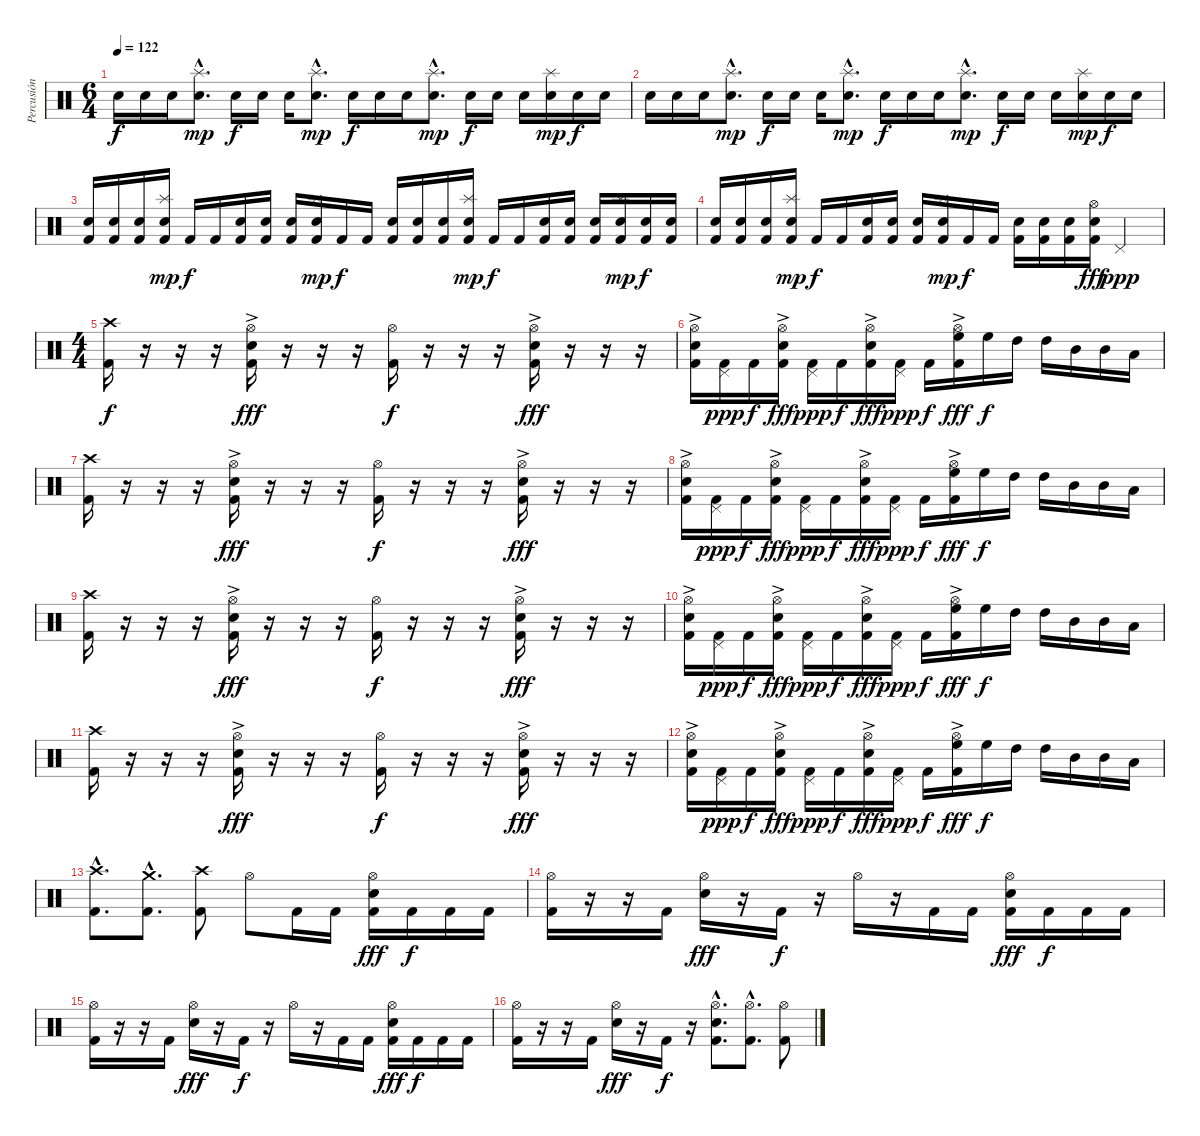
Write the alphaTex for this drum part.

\track ("Percusión" "Percusión") {instrument percussion}
\staff {score}
\articulation defaults
\ts (6 4)
\tempo 122
\clef neutral
\ks c "Electric Snare (hit)".16{dy f} "Electric Snare (hit)".16 "Electric Snare (hit)".16
("Splash (hit)"{hac} "Electric Snare (hit)"{hac}).8{d dy mp} "Electric Snare (hit)".16{dy f} "Electric Snare (hit)".16 "Electric Snare (hit)".16 ("Splash (hit)"{hac} "Electric Snare (hit)"{hac}).8{d dy mp} "Electric Snare (hit)".16{dy f} "Electric Snare (hit)".16 "Electric Snare (hit)".16 ("Splash (hit)"{hac} "Electric Snare (hit)"{hac}).8{d dy mp} "Electric Snare (hit)".16{dy f} "Electric Snare (hit)".16 "Electric Snare (hit)".16 ("Splash (hit)" "Electric Snare (hit)").16{dy mp} "Electric Snare (hit)".16{dy f} "Electric Snare (hit)".16 |
"Electric Snare (hit)".16 "Electric Snare (hit)".16 "Electric Snare (hit)".16 ("Splash (hit)"{hac} "Electric Snare (hit)"{hac}).8{d dy mp} "Electric Snare (hit)".16{dy f} "Electric Snare (hit)".16 "Electric Snare (hit)".16 ("Splash (hit)"{hac} "Electric Snare (hit)"{hac}).8{d dy mp} "Electric Snare (hit)".16{dy f} "Electric Snare (hit)".16 "Electric Snare (hit)".16 ("Splash (hit)"{hac} "Electric Snare (hit)"{hac}).8{d dy mp} "Electric Snare (hit)".16{dy f} "Electric Snare (hit)".16 "Electric Snare (hit)".16 ("Splash (hit)" "Electric Snare (hit)").16{dy mp} "Electric Snare (hit)".16{dy f} "Electric Snare (hit)".16 |
("Electric Snare (hit)" "Kick (hit) 2").16 ("Electric Snare (hit)" "Kick (hit) 2").16 ("Electric Snare (hit)" "Kick (hit) 2").16 ("Splash (hit)" "Electric Snare (hit)" "Kick (hit) 2").16{dy mp} "Kick (hit) 2".16{dy f} "Kick (hit) 2".16 ("Electric Snare (hit)" "Kick (hit) 2").16 ("Electric Snare (hit)" "Kick (hit) 2").16 ("Electric Snare (hit)" "Kick (hit) 2").16 ("Splash (hit)" "Electric Snare (hit)" "Kick (hit) 2").16{dy mp} "Kick (hit) 2".16{dy f} "Kick (hit) 2".16 ("Electric Snare (hit)" "Kick (hit) 2").16 ("Electric Snare (hit)" "Kick (hit) 2").16 ("Electric Snare (hit)" "Kick (hit) 2").16 ("Splash (hit)" "Electric Snare (hit)" "Kick (hit) 2").16{dy mp} "Kick (hit) 2".16{dy f} "Kick (hit) 2".16 ("Electric Snare (hit)" "Kick (hit) 2").16 ("Electric Snare (hit)" "Kick (hit) 2").16 ("Electric Snare (hit)" "Kick (hit) 2").16 ("Splash (hit)" "Electric Snare (hit)" "Kick (hit) 2").16{dy mp} ("Electric Snare (hit)" "Kick (hit) 2").16{dy f} ("Electric Snare (hit)" "Kick (hit) 2").16 |
("Electric Snare (hit)" "Kick (hit) 2").16 ("Electric Snare (hit)" "Kick (hit) 2").16 ("Electric Snare (hit)" "Kick (hit) 2").16 ("Splash (hit)" "Electric Snare (hit)" "Kick (hit) 2").16{dy mp} "Kick (hit) 2".16{dy f} "Kick (hit) 2".16 ("Electric Snare (hit)" "Kick (hit) 2").16 ("Electric Snare (hit)" "Kick (hit) 2").16 ("Electric Snare (hit)" "Kick (hit) 2").16 ("Splash (hit)" "Electric Snare (hit)" "Kick (hit) 2").16{dy mp} "Kick (hit) 2".16{dy f} "Kick (hit) 2".16 ("Electric Snare (hit)" "Kick (hit) 2").16 ("Electric Snare (hit)" "Kick (hit) 2").16 ("Electric Snare (hit)" "Kick (hit) 2").16 ("Hi-Hat (open)" "Electric Snare (hit)" "Kick (hit) 2").16{dy fff} "Pedal Hi-Hat (hit)".2{dy ppp} |
\ts (4 4)
("Crash high (hit)" "Kick (hit) 2").16{dy f} r.16 r.16 r.16 ("Hi-Hat (open)" "Electric Snare (hit)"{ac} "Kick (hit) 2").16{dy fff} r.16 r.16 r.16 ("Hi-Hat (open)" "Kick (hit) 2").16{dy f} r.16 r.16 r.16 ("Hi-Hat (open)" "Electric Snare (hit)"{ac} "Kick (hit) 2").16{dy fff} r.16 r.16 r.16 |
("Hi-Hat (open)"{ac} "Electric Snare (hit)"{ac} "Kick (hit) 2").16 ("Pedal Hi-Hat (hit)" "Kick (hit) 2").16{dy ppp} "Kick (hit) 2".16{dy f} ("Hi-Hat (open)"{ac} "Electric Snare (hit)"{ac} "Kick (hit) 2").16{dy fff} ("Pedal Hi-Hat (hit)" "Kick (hit) 2").16{dy ppp} "Kick (hit) 2".16{dy f} ("Hi-Hat (open)"{ac} "Electric Snare (hit)"{ac} "Kick (hit) 2").16{dy fff} ("Pedal Hi-Hat (hit)" "Kick (hit) 2").16{dy ppp} "Kick (hit) 2".16{dy f} ("Hi-Hat (open)"{ac} "High Floor Tom (hit)" "Kick (hit) 2").16{dy fff} "High Floor Tom (hit)".16{dy f} "High Tom (hit)".16 "High Tom (hit)".16 "Mid Tom (hit)".16 "Mid Tom (hit)".16 "Low Tom (hit)".16 |
("Crash high (hit)" "Kick (hit) 2").16 r.16 r.16 r.16 ("Hi-Hat (open)" "Electric Snare (hit)"{ac} "Kick (hit) 2").16{dy fff} r.16 r.16 r.16 ("Hi-Hat (open)" "Kick (hit) 2").16{dy f} r.16 r.16 r.16 ("Hi-Hat (open)" "Electric Snare (hit)"{ac} "Kick (hit) 2").16{dy fff} r.16 r.16 r.16 |
("Hi-Hat (open)"{ac} "Electric Snare (hit)"{ac} "Kick (hit) 2").16 ("Pedal Hi-Hat (hit)" "Kick (hit) 2").16{dy ppp} "Kick (hit) 2".16{dy f} ("Hi-Hat (open)"{ac} "Electric Snare (hit)"{ac} "Kick (hit) 2").16{dy fff} ("Pedal Hi-Hat (hit)" "Kick (hit) 2").16{dy ppp} "Kick (hit) 2".16{dy f} ("Hi-Hat (open)"{ac} "Electric Snare (hit)"{ac} "Kick (hit) 2").16{dy fff} ("Pedal Hi-Hat (hit)" "Kick (hit) 2").16{dy ppp} "Kick (hit) 2".16{dy f} ("Hi-Hat (open)"{ac} "High Floor Tom (hit)" "Kick (hit) 2").16{dy fff} "High Floor Tom (hit)".16{dy f} "High Tom (hit)".16 "High Tom (hit)".16 "Mid Tom (hit)".16 "Mid Tom (hit)".16 "Low Tom (hit)".16 |
("Crash high (hit)" "Kick (hit) 2").16 r.16 r.16 r.16 ("Hi-Hat (open)" "Electric Snare (hit)"{ac} "Kick (hit) 2").16{dy fff} r.16 r.16 r.16 ("Hi-Hat (open)" "Kick (hit) 2").16{dy f} r.16 r.16 r.16 ("Hi-Hat (open)" "Electric Snare (hit)"{ac} "Kick (hit) 2").16{dy fff} r.16 r.16 r.16 |
("Hi-Hat (open)"{ac} "Electric Snare (hit)"{ac} "Kick (hit) 2").16 ("Pedal Hi-Hat (hit)" "Kick (hit) 2").16{dy ppp} "Kick (hit) 2".16{dy f} ("Hi-Hat (open)"{ac} "Electric Snare (hit)"{ac} "Kick (hit) 2").16{dy fff} ("Pedal Hi-Hat (hit)" "Kick (hit) 2").16{dy ppp} "Kick (hit) 2".16{dy f} ("Hi-Hat (open)"{ac} "Electric Snare (hit)"{ac} "Kick (hit) 2").16{dy fff} ("Pedal Hi-Hat (hit)" "Kick (hit) 2").16{dy ppp} "Kick (hit) 2".16{dy f} ("Hi-Hat (open)"{ac} "High Floor Tom (hit)" "Kick (hit) 2").16{dy fff} "High Floor Tom (hit)".16{dy f} "High Tom (hit)".16 "High Tom (hit)".16 "Mid Tom (hit)".16 "Mid Tom (hit)".16 "Low Tom (hit)".16 |
("Crash high (hit)" "Kick (hit) 2").16 r.16 r.16 r.16 ("Hi-Hat (open)" "Electric Snare (hit)"{ac} "Kick (hit) 2").16{dy fff} r.16 r.16 r.16 ("Hi-Hat (open)" "Kick (hit) 2").16{dy f} r.16 r.16 r.16 ("Hi-Hat (open)" "Electric Snare (hit)"{ac} "Kick (hit) 2").16{dy fff} r.16 r.16 r.16 |
("Hi-Hat (open)"{ac} "Electric Snare (hit)"{ac} "Kick (hit) 2").16 ("Pedal Hi-Hat (hit)" "Kick (hit) 2").16{dy ppp} "Kick (hit) 2".16{dy f} ("Hi-Hat (open)"{ac} "Electric Snare (hit)"{ac} "Kick (hit) 2").16{dy fff} ("Pedal Hi-Hat (hit)" "Kick (hit) 2").16{dy ppp} "Kick (hit) 2".16{dy f} ("Hi-Hat (open)"{ac} "Electric Snare (hit)"{ac} "Kick (hit) 2").16{dy fff} ("Pedal Hi-Hat (hit)" "Kick (hit) 2").16{dy ppp} "Kick (hit) 2".16{dy f} ("Hi-Hat (open)"{ac} "High Floor Tom (hit)" "Kick (hit) 2").16{dy fff} "High Floor Tom (hit)".16{dy f} "High Tom (hit)".16 "High Tom (hit)".16 "Mid Tom (hit)".16 "Mid Tom (hit)".16 "Low Tom (hit)".16 |
("Crash high (hit)"{hac} "Kick (hit) 2"{hac}).8{d} ("Crash medium (hit)"{hac} "Kick (hit) 2"{hac}).8{d} ("Crash high (hit)" "Kick (hit) 2").8 "Hi-Hat (open)".8 "Kick (hit) 2".16 "Kick (hit) 2".16 ("Hi-Hat (open)" "Electric Snare (hit)" "Kick (hit) 2").16{dy fff} "Kick (hit) 2".16{dy f} "Kick (hit) 2".16 "Kick (hit) 2".16 |
("Hi-Hat (open)" "Kick (hit) 2").16 r.16 r.16 "Kick (hit) 2".16 ("Hi-Hat (open)" "Electric Snare (hit)").16{dy fff} r.16 "Kick (hit) 2".16{dy f} r.16 "Hi-Hat (open)".16 r.16 "Kick (hit) 2".16 "Kick (hit) 2".16 ("Hi-Hat (open)" "Electric Snare (hit)" "Kick (hit) 2").16{dy fff} "Kick (hit) 2".16{dy f} "Kick (hit) 2".16 "Kick (hit) 2".16 |
("Hi-Hat (open)" "Kick (hit) 2").16 r.16 r.16 "Kick (hit) 2".16 ("Hi-Hat (open)" "Electric Snare (hit)").16{dy fff} r.16 "Kick (hit) 2".16{dy f} r.16 "Hi-Hat (open)".16 r.16 "Kick (hit) 2".16 "Kick (hit) 2".16 ("Hi-Hat (open)" "Electric Snare (hit)" "Kick (hit) 2").16{dy fff} "Kick (hit) 2".16{dy f} "Kick (hit) 2".16 "Kick (hit) 2".16 |
("Hi-Hat (open)" "Kick (hit) 2").16 r.16 r.16 "Kick (hit) 2".16 ("Hi-Hat (open)" "Electric Snare (hit)").16{dy fff} r.16 "Kick (hit) 2".16{dy f} r.16 ("Hi-Hat (open)"{hac} "Electric Snare (hit)"{hac} "Kick (hit) 2"{hac}).8{d} ("Hi-Hat (open)"{hac} "Kick (hit) 2"{hac}).8{d} ("Hi-Hat (open)" "Kick (hit) 2").8
